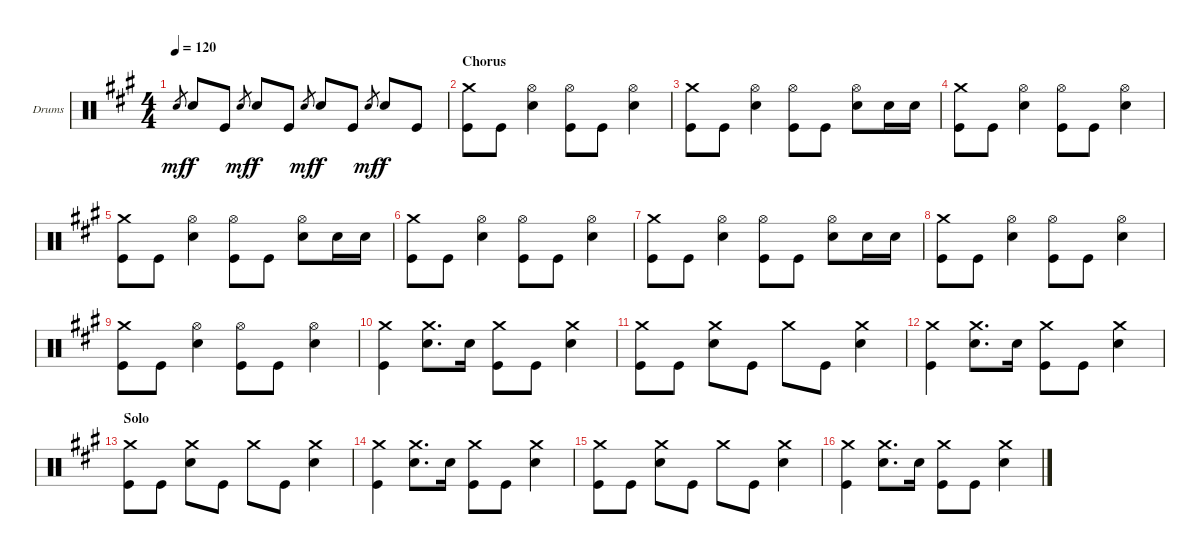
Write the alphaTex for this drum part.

\defaultSystemsLayout 4
\bracketExtendMode groupsimilarinstruments
\firstSystemTrackNameOrientation horizontal
\otherSystemsTrackNameOrientation horizontal
\track ("Drum" "Drums") {instrument percussion}
\staff {score}
\articulation defaults
\ts (4 4)
\tempo 120
\clef neutral
\scale
1.05801
\ks a "Snare (hit) 2".8{gr dy mf} "Snare (hit) 2".8{dy f} "Kick (hit)".8 "Snare (hit) 2".8{gr dy mf} "Snare (hit) 2".8{dy f} "Kick (hit)".8 "Snare (hit) 2".8{gr dy mf} "Snare (hit) 2".8{dy f} "Kick (hit)".8 "Snare (hit) 2".8{gr dy mf} "Snare (hit) 2".8{dy f} "Kick (hit)".8
|
\section ("" "Chorus")
\scale
0.941992 ("Crash medium (hit)" "Kick (hit)").8 "Kick (hit)".8 ("Hi-Hat (open)" "Snare (hit) 2").4 ("Hi-Hat (open)" "Kick (hit)").8 "Kick (hit)".8 ("Hi-Hat (open)" "Snare (hit) 2").4 |
\scale
1.05801 ("Crash medium (hit)" "Kick (hit)").8 "Kick (hit)".8 ("Hi-Hat (open)" "Snare (hit) 2").4 ("Hi-Hat (open)" "Kick (hit)").8 "Kick (hit)".8 ("Hi-Hat (open)" "Snare (hit) 2").8 "Snare (hit) 2".16 "Snare (hit) 2".16 |
\scale
0.941992 ("Crash medium (hit)" "Kick (hit)").8 "Kick (hit)".8 ("Hi-Hat (open)" "Snare (hit) 2").4 ("Hi-Hat (open)" "Kick (hit)").8 "Kick (hit)".8 ("Hi-Hat (open)" "Snare (hit) 2").4 |
\scale
1.05801 ("Crash medium (hit)" "Kick (hit)").8 "Kick (hit)".8 ("Hi-Hat (open)" "Snare (hit) 2").4 ("Hi-Hat (open)" "Kick (hit)").8 "Kick (hit)".8 ("Hi-Hat (open)" "Snare (hit) 2").8 "Snare (hit) 2".16 "Snare (hit) 2".16 |
\scale
0.941992 ("Crash medium (hit)" "Kick (hit)").8 "Kick (hit)".8 ("Hi-Hat (open)" "Snare (hit) 2").4 ("Hi-Hat (open)" "Kick (hit)").8 "Kick (hit)".8 ("Hi-Hat (open)" "Snare (hit) 2").4 |
\scale
1.05801 ("Crash medium (hit)" "Kick (hit)").8 "Kick (hit)".8 ("Hi-Hat (open)" "Snare (hit) 2").4 ("Hi-Hat (open)" "Kick (hit)").8 "Kick (hit)".8 ("Hi-Hat (open)" "Snare (hit) 2").8 "Snare (hit) 2".16 "Snare (hit) 2".16 |
\scale
0.941992 ("Crash medium (hit)" "Kick (hit)").8 "Kick (hit)".8 ("Hi-Hat (open)" "Snare (hit) 2").4 ("Hi-Hat (open)" "Kick (hit)").8 "Kick (hit)".8 ("Hi-Hat (open)" "Snare (hit) 2").4 |
\scale
1.05801 ("Crash medium (hit)" "Kick (hit)").8 "Kick (hit)".8 ("Hi-Hat (open)" "Snare (hit) 2").4 ("Hi-Hat (open)" "Kick (hit)").8 "Kick (hit)".8 ("Hi-Hat (open)" "Snare (hit) 2").4 |
\scale
0.941992 ("Crash medium (hit)" "Kick (hit)").4 ("Crash medium (hit)" "Snare (hit) 2").8{d} "Snare (hit) 2".16 ("Crash medium (hit)" "Kick (hit)").8 "Kick (hit)".8 ("Crash medium (hit)" "Snare (hit) 2").4 |
\scale
1.05801 ("Crash medium (hit)" "Kick (hit)").8 "Kick (hit)".8 ("Crash medium (hit)" "Snare (hit) 2").8 "Kick (hit)".8 "Crash medium (hit)".8 "Kick (hit)".8 ("Crash medium (hit)" "Snare (hit) 2").4 |
\scale
0.941992 ("Crash medium (hit)" "Kick (hit)").4 ("Crash medium (hit)" "Snare (hit) 2").8{d} "Snare (hit) 2".16 ("Crash medium (hit)" "Kick (hit)").8 "Kick (hit)".8 ("Crash medium (hit)" "Snare (hit) 2").4 |
\section ("" "Solo")
\scale
1.05801 ("Crash medium (hit)" "Kick (hit)").8 "Kick (hit)".8 ("Crash medium (hit)" "Snare (hit) 2").8 "Kick (hit)".8 "Crash medium (hit)".8 "Kick (hit)".8 ("Crash medium (hit)" "Snare (hit) 2").4 |
\scale
0.941992 ("Crash medium (hit)" "Kick (hit)").4 ("Crash medium (hit)" "Snare (hit) 2").8{d} "Snare (hit) 2".16 ("Crash medium (hit)" "Kick (hit)").8 "Kick (hit)".8 ("Crash medium (hit)" "Snare (hit) 2").4 |
\scale
1.05801 ("Crash medium (hit)" "Kick (hit)").8 "Kick (hit)".8 ("Crash medium (hit)" "Snare (hit) 2").8 "Kick (hit)".8 "Crash medium (hit)".8 "Kick (hit)".8 ("Crash medium (hit)" "Snare (hit) 2").4 |
\scale
0.941992 ("Crash medium (hit)" "Kick (hit)").4 ("Crash medium (hit)" "Snare (hit) 2").8{d} "Snare (hit) 2".16 ("Crash medium (hit)" "Kick (hit)").8 "Kick (hit)".8 ("Crash medium (hit)" "Snare (hit) 2").4
